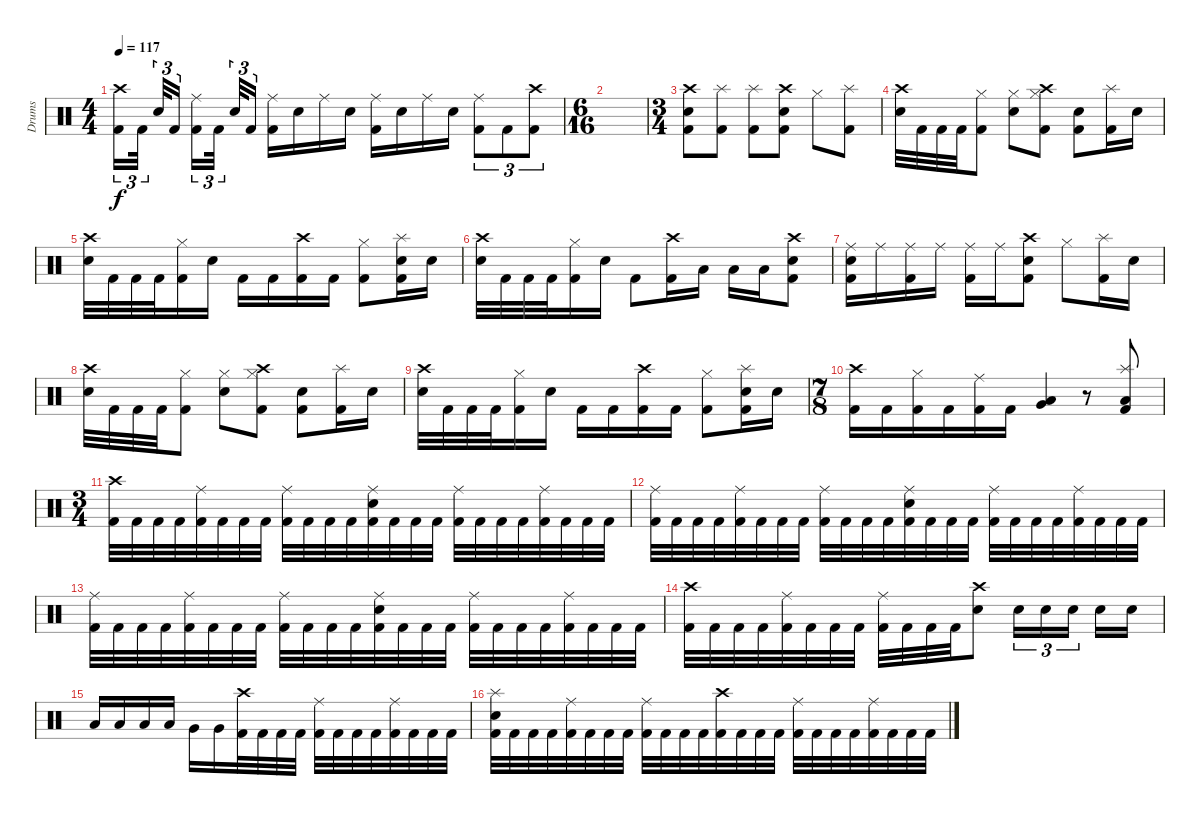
\track ("Drums" "Drums") {instrument percussion}
\staff {score}
\articulation defaults
\ts (4 4)
\tempo 117
\clef neutral
\ks c
("Crash high (hit)" "Kick (hit) 2").16{tu (3 2) dy f} "Kick (hit) 2".32{tu (3 2)} "Electric Snare (hit)".32{tu (3 2)} "Kick (hit) 2".16{tu (3 2)} ("Ride (middle)" "Kick (hit) 2").16{tu (3 2)} "Kick (hit) 2".32{tu (3 2)} "Electric Snare (hit)".32{tu (3 2)} "Kick (hit) 2".16{tu (3 2)} ("Ride (middle)" "Kick (hit) 2").16 "Electric Snare (hit)".16 "Ride (middle)".16 "Electric Snare (hit)".16 ("Ride (middle)" "Kick (hit) 2").16 "Electric Snare (hit)".16 "Ride (middle)".16 "Electric Snare (hit)".16 ("Ride (middle)" "Kick (hit) 2").8{tu (3 2)} "Kick (hit) 2".8{tu (3 2)} ("Crash high (hit)" "Kick (hit) 2").8{tu (3 2)} |
\ts (6 16)
|
\ts (3 4)
("Crash high (hit)" "Electric Snare (hit)" "Kick (hit) 2").8 ("Splash (hit)" "Kick (hit) 2").8 ("Splash (hit)" "Kick (hit) 2").8 ("Crash high (hit)" "Electric Snare (hit)" "Kick (hit) 2").8 "Hi-Hat (closed)".8 ("Splash (hit)" "Kick (hit) 2").8 |
("Crash high (hit)" "Electric Snare (hit)").32 "Kick (hit) 2".32 "Kick (hit) 2".32 "Kick (hit) 2".32 ("Hi-Hat (closed)" "Kick (hit) 2").8 ("Hi-Hat (closed)" "Electric Snare (hit)").8 ("Crash high (hit)" "Hi-Hat (closed)" "Kick (hit) 2").8 ("Electric Snare (hit)" "Kick (hit) 2").8 ("Splash (hit)" "Kick (hit) 2").16 "Electric Snare (hit)".16 |
("Crash high (hit)" "Electric Snare (hit)").32 "Kick (hit) 2".32 "Kick (hit) 2".32 "Kick (hit) 2".32 ("Hi-Hat (closed)" "Kick (hit) 2").16 "Electric Snare (hit)".16 "Kick (hit) 2".16 "Kick (hit) 2".16 ("Crash high (hit)" "Kick (hit) 2").16 "Kick (hit) 2".16 ("Hi-Hat (closed)" "Kick (hit) 2").8 ("Splash (hit)" "Electric Snare (hit)" "Kick (hit) 2").16 "Electric Snare (hit)".16 |
("Crash high (hit)" "Electric Snare (hit)").32 "Kick (hit) 2".32 "Kick (hit) 2".32 "Kick (hit) 2".32 ("Hi-Hat (closed)" "Kick (hit) 2").16 "Electric Snare (hit)".16 "Kick (hit) 2".8 ("Crash high (hit)" "Kick (hit) 2").16 "Low Floor Tom (hit)".16 "Low Floor Tom (hit)".16 "Low Floor Tom (hit)".16 ("Crash high (hit)" "Electric Snare (hit)" "Kick (hit) 2").8 |
("Ride (middle)" "Electric Snare (hit)" "Kick (hit) 2").16 "Ride (middle)".16 ("Ride (middle)" "Kick (hit) 2").16 "Ride (middle)".16 ("Ride (middle)" "Kick (hit) 2").16 "Ride (middle)".16 ("Crash high (hit)" "Electric Snare (hit)" "Kick (hit) 2").8 "Hi-Hat (closed)".8 ("Splash (hit)" "Kick (hit) 2").16 "Electric Snare (hit)".16 |
("Crash high (hit)" "Electric Snare (hit)").32 "Kick (hit) 2".32 "Kick (hit) 2".32 "Kick (hit) 2".32 ("Hi-Hat (closed)" "Kick (hit) 2").8 ("Hi-Hat (closed)" "Electric Snare (hit)").8 ("Crash high (hit)" "Hi-Hat (closed)" "Kick (hit) 2").8 ("Electric Snare (hit)" "Kick (hit) 2").8 ("Splash (hit)" "Kick (hit) 2").16 "Electric Snare (hit)".16 |
("Crash high (hit)" "Electric Snare (hit)").32 "Kick (hit) 2".32 "Kick (hit) 2".32 "Kick (hit) 2".32 ("Hi-Hat (closed)" "Kick (hit) 2").16 "Electric Snare (hit)".16 "Kick (hit) 2".16 "Kick (hit) 2".16 ("Crash high (hit)" "Kick (hit) 2").16 "Kick (hit) 2".16 ("Hi-Hat (closed)" "Kick (hit) 2").8 ("Splash (hit)" "Electric Snare (hit)" "Kick (hit) 2").16 "Electric Snare (hit)".16 |
\ts (7 8)
("Crash high (hit)" "Kick (hit) 2").16 "Kick (hit) 2".16 ("Hi-Hat (closed)" "Kick (hit) 2").16 "Kick (hit) 2".16 ("Ride (middle)" "Kick (hit) 2").16 "Kick (hit) 2".16 ("Very Low Tom (hit)" "Low Floor Tom (hit)").4 r.8 ("Splash (hit)" "Low Floor Tom (hit)" "Kick (hit) 2").8 |
\ts (3 4)
("Crash high (hit)" "Kick (hit) 2").32 "Kick (hit) 2".32 "Kick (hit) 2".32 "Kick (hit) 2".32 ("Ride (middle)" "Kick (hit) 2").32 "Kick (hit) 2".32 "Kick (hit) 2".32 "Kick (hit) 2".32 ("Ride (middle)" "Kick (hit) 2").32 "Kick (hit) 2".32 "Kick (hit) 2".32 "Kick (hit) 2".32 ("Ride (middle)" "Electric Snare (hit)" "Kick (hit) 2").32 "Kick (hit) 2".32 "Kick (hit) 2".32 "Kick (hit) 2".32 ("Ride (middle)" "Kick (hit) 2").32 "Kick (hit) 2".32 "Kick (hit) 2".32 "Kick (hit) 2".32 ("Ride (middle)" "Kick (hit) 2").32 "Kick (hit) 2".32 "Kick (hit) 2".32 "Kick (hit) 2".32 |
("Ride (middle)" "Kick (hit) 2").32 "Kick (hit) 2".32 "Kick (hit) 2".32 "Kick (hit) 2".32 ("Ride (middle)" "Kick (hit) 2").32 "Kick (hit) 2".32 "Kick (hit) 2".32 "Kick (hit) 2".32 ("Ride (middle)" "Kick (hit) 2").32 "Kick (hit) 2".32 "Kick (hit) 2".32 "Kick (hit) 2".32 ("Ride (middle)" "Electric Snare (hit)" "Kick (hit) 2").32 "Kick (hit) 2".32 "Kick (hit) 2".32 "Kick (hit) 2".32 ("Ride (middle)" "Kick (hit) 2").32 "Kick (hit) 2".32 "Kick (hit) 2".32 "Kick (hit) 2".32 ("Ride (middle)" "Kick (hit) 2").32 "Kick (hit) 2".32 "Kick (hit) 2".32 "Kick (hit) 2".32 |
("Ride (middle)" "Kick (hit) 2").32 "Kick (hit) 2".32 "Kick (hit) 2".32 "Kick (hit) 2".32 ("Ride (middle)" "Kick (hit) 2").32 "Kick (hit) 2".32 "Kick (hit) 2".32 "Kick (hit) 2".32 ("Ride (middle)" "Kick (hit) 2").32 "Kick (hit) 2".32 "Kick (hit) 2".32 "Kick (hit) 2".32 ("Ride (middle)" "Electric Snare (hit)" "Kick (hit) 2").32 "Kick (hit) 2".32 "Kick (hit) 2".32 "Kick (hit) 2".32 ("Ride (middle)" "Kick (hit) 2").32 "Kick (hit) 2".32 "Kick (hit) 2".32 "Kick (hit) 2".32 ("Ride (middle)" "Kick (hit) 2").32 "Kick (hit) 2".32 "Kick (hit) 2".32 "Kick (hit) 2".32 |
("Crash high (hit)" "Kick (hit) 2").32 "Kick (hit) 2".32 "Kick (hit) 2".32 "Kick (hit) 2".32 ("Ride (middle)" "Kick (hit) 2").32 "Kick (hit) 2".32 "Kick (hit) 2".32 "Kick (hit) 2".32 ("Ride (middle)" "Kick (hit) 2").32 "Kick (hit) 2".32 "Kick (hit) 2".32 "Kick (hit) 2".32 ("Crash high (hit)" "Electric Snare (hit)").8 "Electric Snare (hit)".16{tu (3 2)} "Electric Snare (hit)".16{tu (3 2)} "Electric Snare (hit)".16{tu (3 2)} "Electric Snare (hit)".16 "Electric Snare (hit)".16 |
"Low Floor Tom (hit)".16 "Low Floor Tom (hit)".16 "Low Floor Tom (hit)".16 "Low Floor Tom (hit)".16 "Very Low Tom (hit)".16 "Very Low Tom (hit)".16 ("Crash high (hit)" "Kick (hit) 2").32 "Kick (hit) 2".32 "Kick (hit) 2".32 "Kick (hit) 2".32 ("Ride (middle)" "Kick (hit) 2").32 "Kick (hit) 2".32 "Kick (hit) 2".32 "Kick (hit) 2".32 ("Ride (middle)" "Kick (hit) 2").32 "Kick (hit) 2".32 "Kick (hit) 2".32 "Kick (hit) 2".32 |
("Splash (hit)" "Electric Snare (hit)" "Kick (hit) 2").32 "Kick (hit) 2".32 "Kick (hit) 2".32 "Kick (hit) 2".32 ("Ride (middle)" "Kick (hit) 2").32 "Kick (hit) 2".32 "Kick (hit) 2".32 "Kick (hit) 2".32 ("Ride (middle)" "Kick (hit) 2").32 "Kick (hit) 2".32 "Kick (hit) 2".32 "Kick (hit) 2".32 ("Crash high (hit)" "Kick (hit) 2").32 "Kick (hit) 2".32 "Kick (hit) 2".32 "Kick (hit) 2".32 ("Ride (middle)" "Kick (hit) 2").32 "Kick (hit) 2".32 "Kick (hit) 2".32 "Kick (hit) 2".32 ("Ride (middle)" "Kick (hit) 2").32 "Kick (hit) 2".32 "Kick (hit) 2".32 "Kick (hit) 2".32
